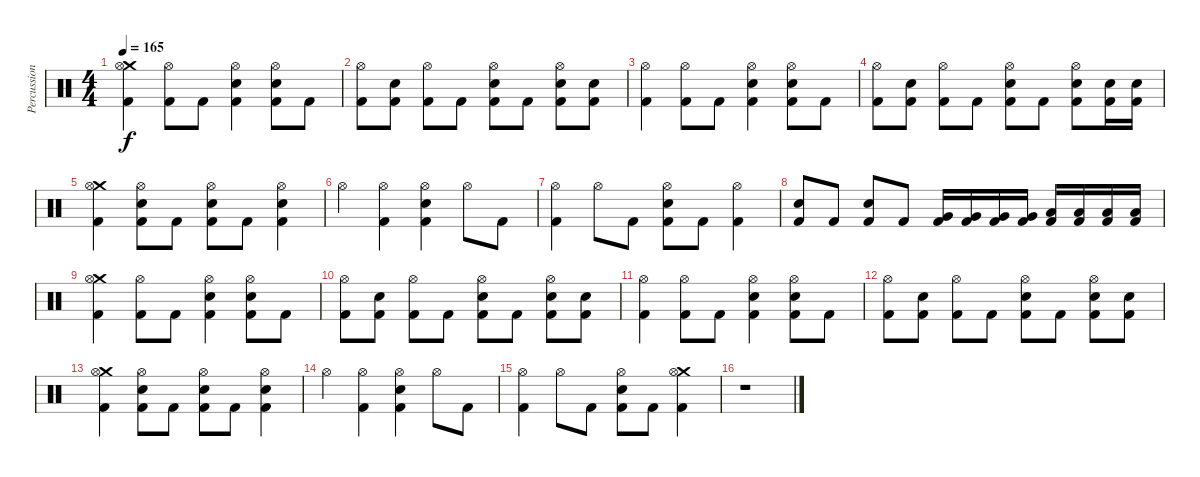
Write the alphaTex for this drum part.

\track ("Percussions" "Percussion") {instrument percussion}
\staff {score}
\articulation defaults
\ts (4 4)
\tempo 165
\clef neutral
\ks c
("Crash medium (hit)" "Hi-Hat (open)" "Kick (hit) 2").4{dy f} ("Hi-Hat (open)" "Kick (hit) 2").8 "Kick (hit) 2".8 ("Hi-Hat (open)" "Electric Snare (hit)" "Kick (hit) 2").4 ("Hi-Hat (open)" "Electric Snare (hit)" "Kick (hit) 2").8 "Kick (hit) 2".8 |
("Hi-Hat (open)" "Kick (hit) 2").8 ("Electric Snare (hit)" "Kick (hit) 2").8 ("Hi-Hat (open)" "Kick (hit) 2").8 "Kick (hit) 2".8 ("Hi-Hat (open)" "Electric Snare (hit)" "Kick (hit) 2").8 "Kick (hit) 2".8 ("Hi-Hat (open)" "Electric Snare (hit)" "Kick (hit) 2").8 ("Electric Snare (hit)" "Kick (hit) 2").8 |
("Hi-Hat (open)" "Kick (hit) 2").4 ("Hi-Hat (open)" "Kick (hit) 2").8 "Kick (hit) 2".8 ("Hi-Hat (open)" "Electric Snare (hit)" "Kick (hit) 2").4 ("Hi-Hat (open)" "Electric Snare (hit)" "Kick (hit) 2").8 "Kick (hit) 2".8 |
("Hi-Hat (open)" "Kick (hit) 2").8 ("Electric Snare (hit)" "Kick (hit) 2").8 ("Hi-Hat (open)" "Kick (hit) 2").8 "Kick (hit) 2".8 ("Hi-Hat (open)" "Electric Snare (hit)" "Kick (hit) 2").8 "Kick (hit) 2".8 ("Hi-Hat (open)" "Electric Snare (hit)" "Kick (hit) 2").8 ("Electric Snare (hit)" "Kick (hit) 2").16 ("Electric Snare (hit)" "Kick (hit) 2").16 |
("Crash medium (hit)" "Hi-Hat (open)" "Kick (hit) 2").4 ("Hi-Hat (open)" "Electric Snare (hit)" "Kick (hit) 2").8 "Kick (hit) 2".8 ("Hi-Hat (open)" "Electric Snare (hit)" "Kick (hit) 2").8 "Kick (hit) 2".8 ("Hi-Hat (open)" "Electric Snare (hit)" "Kick (hit) 2").4 |
"Hi-Hat (open)".4 ("Hi-Hat (open)" "Kick (hit) 2").4 ("Hi-Hat (open)" "Electric Snare (hit)" "Kick (hit) 2").4 "Hi-Hat (open)".8 "Kick (hit) 2".8 |
("Hi-Hat (open)" "Kick (hit) 2").4 "Hi-Hat (open)".8 "Kick (hit) 2".8 ("Hi-Hat (open)" "Electric Snare (hit)" "Kick (hit) 2").8 "Kick (hit) 2".8 ("Hi-Hat (open)" "Kick (hit) 2").4 |
("Electric Snare (hit)" "Kick (hit) 2").8 "Kick (hit) 2".8 ("Electric Snare (hit)" "Kick (hit) 2").8 "Kick (hit) 2".8 ("Very Low Tom (hit)" "Kick (hit) 2").16 ("Very Low Tom (hit)" "Kick (hit) 2").16 ("Very Low Tom (hit)" "Kick (hit) 2").16 ("Very Low Tom (hit)" "Kick (hit) 2").16 ("Low Floor Tom (hit)" "Kick (hit) 2").16 ("Low Floor Tom (hit)" "Kick (hit) 2").16 ("Low Floor Tom (hit)" "Kick (hit) 2").16 ("Low Floor Tom (hit)" "Kick (hit) 2").16 |
("Crash medium (hit)" "Hi-Hat (open)" "Kick (hit) 2").4 ("Hi-Hat (open)" "Kick (hit) 2").8 "Kick (hit) 2".8 ("Hi-Hat (open)" "Electric Snare (hit)" "Kick (hit) 2").4 ("Hi-Hat (open)" "Electric Snare (hit)" "Kick (hit) 2").8 "Kick (hit) 2".8 |
("Hi-Hat (open)" "Kick (hit) 2").8 ("Electric Snare (hit)" "Kick (hit) 2").8 ("Hi-Hat (open)" "Kick (hit) 2").8 "Kick (hit) 2".8 ("Hi-Hat (open)" "Electric Snare (hit)" "Kick (hit) 2").8 "Kick (hit) 2".8 ("Hi-Hat (open)" "Electric Snare (hit)" "Kick (hit) 2").8 ("Electric Snare (hit)" "Kick (hit) 2").8 |
("Hi-Hat (open)" "Kick (hit) 2").4 ("Hi-Hat (open)" "Kick (hit) 2").8 "Kick (hit) 2".8 ("Hi-Hat (open)" "Electric Snare (hit)" "Kick (hit) 2").4 ("Hi-Hat (open)" "Electric Snare (hit)" "Kick (hit) 2").8 "Kick (hit) 2".8 |
("Hi-Hat (open)" "Kick (hit) 2").8 ("Electric Snare (hit)" "Kick (hit) 2").8 ("Hi-Hat (open)" "Kick (hit) 2").8 "Kick (hit) 2".8 ("Hi-Hat (open)" "Electric Snare (hit)" "Kick (hit) 2").8 "Kick (hit) 2".8 ("Hi-Hat (open)" "Electric Snare (hit)" "Kick (hit) 2").8 ("Electric Snare (hit)" "Kick (hit) 2").8 |
("Crash medium (hit)" "Hi-Hat (open)" "Kick (hit) 2").4 ("Hi-Hat (open)" "Electric Snare (hit)" "Kick (hit) 2").8 "Kick (hit) 2".8 ("Hi-Hat (open)" "Electric Snare (hit)" "Kick (hit) 2").8 "Kick (hit) 2".8 ("Hi-Hat (open)" "Electric Snare (hit)" "Kick (hit) 2").4 |
"Hi-Hat (open)".4 ("Hi-Hat (open)" "Kick (hit) 2").4 ("Hi-Hat (open)" "Electric Snare (hit)" "Kick (hit) 2").4 "Hi-Hat (open)".8 "Kick (hit) 2".8 |
("Hi-Hat (open)" "Kick (hit) 2").4 "Hi-Hat (open)".8 "Kick (hit) 2".8 ("Hi-Hat (open)" "Electric Snare (hit)" "Kick (hit) 2").8 "Kick (hit) 2".8 ("Crash medium (hit)" "Hi-Hat (open)" "Kick (hit) 2").4 |
r.1
